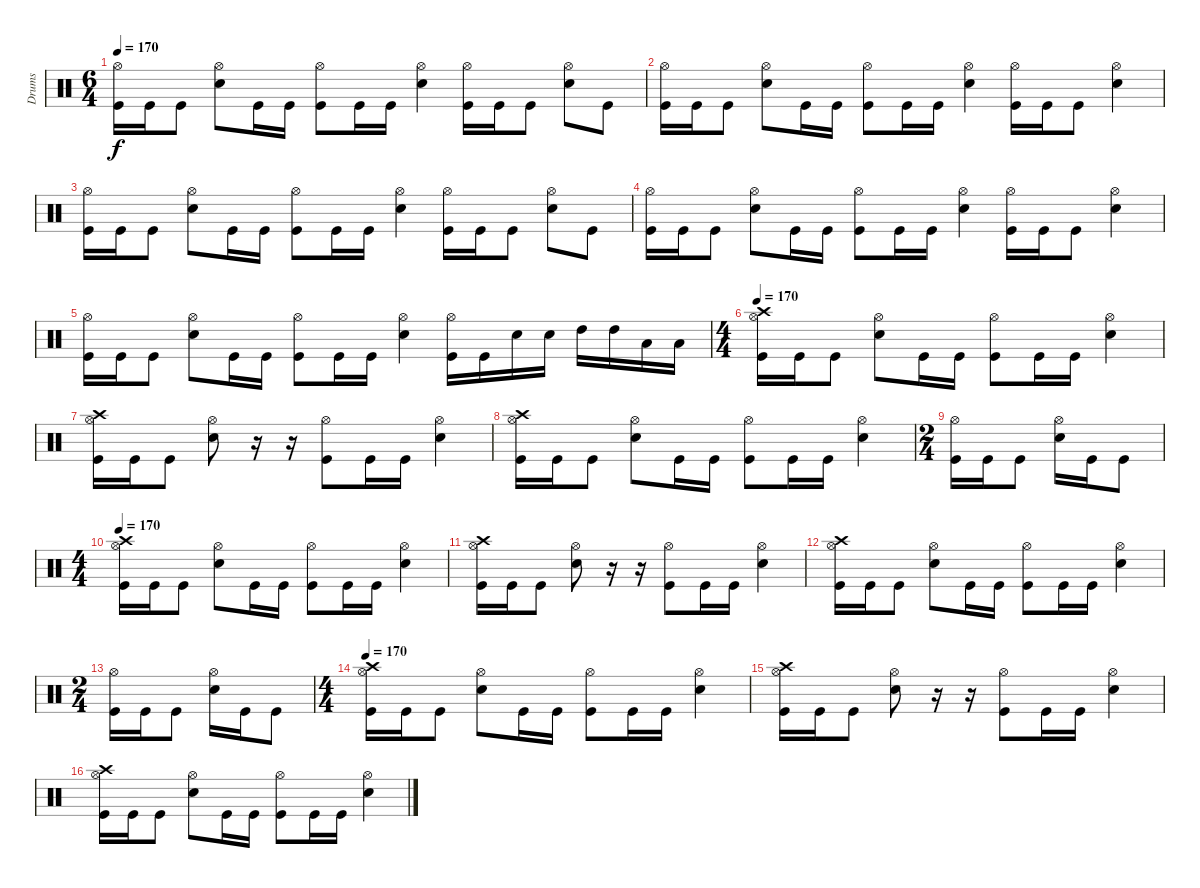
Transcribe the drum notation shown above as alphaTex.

\track ("Drums" "Drums") {instrument percussion}
\staff {score}
\articulation defaults
\ts (6 4)
\tempo 170
\clef neutral
\ks c
("Kick (hit)" "Hi-Hat (open)").16{dy f} "Kick (hit)".16 "Kick (hit)".8 ("Snare (hit) 2" "Hi-Hat (open)").8 "Kick (hit)".16 "Kick (hit)".16 ("Kick (hit)" "Hi-Hat (open)").8 "Kick (hit)".16 "Kick (hit)".16 ("Snare (hit) 2" "Hi-Hat (open)").4 ("Kick (hit)" "Hi-Hat (open)").16 "Kick (hit)".16 "Kick (hit)".8 ("Snare (hit) 2" "Hi-Hat (open)").8 "Kick (hit)".8 |
("Kick (hit)" "Hi-Hat (open)").16 "Kick (hit)".16 "Kick (hit)".8 ("Snare (hit) 2" "Hi-Hat (open)").8 "Kick (hit)".16 "Kick (hit)".16 ("Kick (hit)" "Hi-Hat (open)").8 "Kick (hit)".16 "Kick (hit)".16 ("Snare (hit) 2" "Hi-Hat (open)").4 ("Kick (hit)" "Hi-Hat (open)").16 "Kick (hit)".16 "Kick (hit)".8 ("Snare (hit) 2" "Hi-Hat (open)").4 |
("Kick (hit)" "Hi-Hat (open)").16 "Kick (hit)".16 "Kick (hit)".8 ("Snare (hit) 2" "Hi-Hat (open)").8 "Kick (hit)".16 "Kick (hit)".16 ("Kick (hit)" "Hi-Hat (open)").8 "Kick (hit)".16 "Kick (hit)".16 ("Snare (hit) 2" "Hi-Hat (open)").4 ("Kick (hit)" "Hi-Hat (open)").16 "Kick (hit)".16 "Kick (hit)".8 ("Snare (hit) 2" "Hi-Hat (open)").8 "Kick (hit)".8 |
("Kick (hit)" "Hi-Hat (open)").16 "Kick (hit)".16 "Kick (hit)".8 ("Snare (hit) 2" "Hi-Hat (open)").8 "Kick (hit)".16 "Kick (hit)".16 ("Kick (hit)" "Hi-Hat (open)").8 "Kick (hit)".16 "Kick (hit)".16 ("Snare (hit) 2" "Hi-Hat (open)").4 ("Kick (hit)" "Hi-Hat (open)").16 "Kick (hit)".16 "Kick (hit)".8 ("Snare (hit) 2" "Hi-Hat (open)").4 |
("Kick (hit)" "Hi-Hat (open)").16 "Kick (hit)".16 "Kick (hit)".8 ("Snare (hit) 2" "Hi-Hat (open)").8 "Kick (hit)".16 "Kick (hit)".16 ("Kick (hit)" "Hi-Hat (open)").8 "Kick (hit)".16 "Kick (hit)".16 ("Snare (hit) 2" "Hi-Hat (open)").4 ("Kick (hit)" "Hi-Hat (open)").16 "Kick (hit)".16 "Snare (hit) 2".16 "Snare (hit) 2".16 "High Tom (hit)".16 "High Tom (hit)".16 "Low Tom (hit)".16 "Low Tom (hit)".16 |
\ts (4 4)
\tempo 170
("Kick (hit)" "Hi-Hat (open)" "Crash high (hit)").16 "Kick (hit)".16 "Kick (hit)".8 ("Snare (hit) 2" "Hi-Hat (open)").8 "Kick (hit)".16 "Kick (hit)".16 ("Kick (hit)" "Hi-Hat (open)").8 "Kick (hit)".16 "Kick (hit)".16 ("Snare (hit) 2" "Hi-Hat (open)").4 |
("Kick (hit)" "Hi-Hat (open)" "Crash high (hit)").16 "Kick (hit)".16 "Kick (hit)".8 ("Snare (hit) 2" "Hi-Hat (open)").8 r.16 r.16 ("Kick (hit)" "Hi-Hat (open)").8 "Kick (hit)".16 "Kick (hit)".16 ("Snare (hit) 2" "Hi-Hat (open)").4 |
("Kick (hit)" "Hi-Hat (open)" "Crash high (hit)").16 "Kick (hit)".16 "Kick (hit)".8 ("Snare (hit) 2" "Hi-Hat (open)").8 "Kick (hit)".16 "Kick (hit)".16 ("Kick (hit)" "Hi-Hat (open)").8 "Kick (hit)".16 "Kick (hit)".16 ("Snare (hit) 2" "Hi-Hat (open)").4 |
\ts (2 4)
("Kick (hit)" "Hi-Hat (open)").16 "Kick (hit)".16 "Kick (hit)".8 ("Snare (hit) 2" "Hi-Hat (open)").16 "Kick (hit)".16 "Kick (hit)".8 |
\ts (4 4)
\tempo 170
("Kick (hit)" "Hi-Hat (open)" "Crash high (hit)").16 "Kick (hit)".16 "Kick (hit)".8 ("Snare (hit) 2" "Hi-Hat (open)").8 "Kick (hit)".16 "Kick (hit)".16 ("Kick (hit)" "Hi-Hat (open)").8 "Kick (hit)".16 "Kick (hit)".16 ("Snare (hit) 2" "Hi-Hat (open)").4 |
("Kick (hit)" "Hi-Hat (open)" "Crash high (hit)").16 "Kick (hit)".16 "Kick (hit)".8 ("Snare (hit) 2" "Hi-Hat (open)").8 r.16 r.16 ("Kick (hit)" "Hi-Hat (open)").8 "Kick (hit)".16 "Kick (hit)".16 ("Snare (hit) 2" "Hi-Hat (open)").4 |
("Kick (hit)" "Hi-Hat (open)" "Crash high (hit)").16 "Kick (hit)".16 "Kick (hit)".8 ("Snare (hit) 2" "Hi-Hat (open)").8 "Kick (hit)".16 "Kick (hit)".16 ("Kick (hit)" "Hi-Hat (open)").8 "Kick (hit)".16 "Kick (hit)".16 ("Snare (hit) 2" "Hi-Hat (open)").4 |
\ts (2 4)
("Kick (hit)" "Hi-Hat (open)").16 "Kick (hit)".16 "Kick (hit)".8 ("Snare (hit) 2" "Hi-Hat (open)").16 "Kick (hit)".16 "Kick (hit)".8 |
\ts (4 4)
\tempo 170
("Kick (hit)" "Hi-Hat (open)" "Crash high (hit)").16 "Kick (hit)".16 "Kick (hit)".8 ("Snare (hit) 2" "Hi-Hat (open)").8 "Kick (hit)".16 "Kick (hit)".16 ("Kick (hit)" "Hi-Hat (open)").8 "Kick (hit)".16 "Kick (hit)".16 ("Snare (hit) 2" "Hi-Hat (open)").4 |
("Kick (hit)" "Hi-Hat (open)" "Crash high (hit)").16 "Kick (hit)".16 "Kick (hit)".8 ("Snare (hit) 2" "Hi-Hat (open)").8 r.16 r.16 ("Kick (hit)" "Hi-Hat (open)").8 "Kick (hit)".16 "Kick (hit)".16 ("Snare (hit) 2" "Hi-Hat (open)").4 |
("Kick (hit)" "Hi-Hat (open)" "Crash high (hit)").16 "Kick (hit)".16 "Kick (hit)".8 ("Snare (hit) 2" "Hi-Hat (open)").8 "Kick (hit)".16 "Kick (hit)".16 ("Kick (hit)" "Hi-Hat (open)").8 "Kick (hit)".16 "Kick (hit)".16 ("Snare (hit) 2" "Hi-Hat (open)").4
